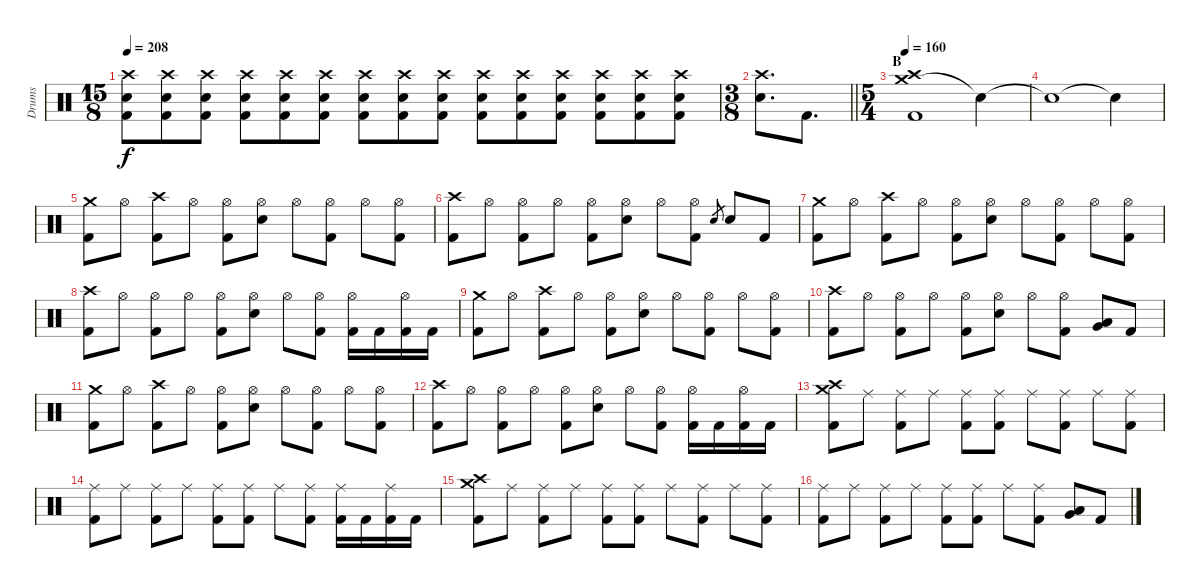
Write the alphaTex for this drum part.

\track ("Drums" "Drums") {instrument percussion}
\staff {score}
\articulation defaults
\ts (15 8)
\tempo 208
\clef neutral
\ks c
("Crash high (hit)" "Electric Snare (hit)" "Kick (hit) 2").8{dy f} ("Crash high (hit)" "Electric Snare (hit)" "Kick (hit) 2").8 ("Crash high (hit)" "Electric Snare (hit)" "Kick (hit) 2").8 ("Crash high (hit)" "Electric Snare (hit)" "Kick (hit) 2").8 ("Crash high (hit)" "Electric Snare (hit)" "Kick (hit) 2").8 ("Crash high (hit)" "Electric Snare (hit)" "Kick (hit) 2").8 ("Crash high (hit)" "Electric Snare (hit)" "Kick (hit) 2").8 ("Crash high (hit)" "Electric Snare (hit)" "Kick (hit) 2").8 ("Crash high (hit)" "Electric Snare (hit)" "Kick (hit) 2").8 ("Crash high (hit)" "Electric Snare (hit)" "Kick (hit) 2").8 ("Crash high (hit)" "Electric Snare (hit)" "Kick (hit) 2").8 ("Crash high (hit)" "Electric Snare (hit)" "Kick (hit) 2").8 ("Crash high (hit)" "Electric Snare (hit)" "Kick (hit) 2").8 ("Crash high (hit)" "Electric Snare (hit)" "Kick (hit) 2").8 ("Crash high (hit)" "Electric Snare (hit)" "Kick (hit) 2").8 |
\ts (3 8)
\barLineRight lightlight
("Crash high (hit)" "Electric Snare (hit)").8{d} "Kick (hit) 2".8{d} |
\ts (5 4)
\section ("" "B")
\tempo 160
("Crash medium (hit)" "Crash high (hit)" "Kick (hit) 2").1 "Snare (hit)"{t}.4 |
"Snare (hit)"{t}.1 "Snare (hit)"{t}.4 |
("Crash medium (hit)" "Kick (hit) 2").8 "Hi-Hat (open)".8 ("Crash high (hit)" "Kick (hit) 2").8 "Hi-Hat (open)".8 ("Hi-Hat (open)" "Kick (hit) 2").8 ("Hi-Hat (open)" "Electric Snare (hit)").8 "Hi-Hat (open)".8 ("Hi-Hat (open)" "Kick (hit) 2").8 "Hi-Hat (open)".8 ("Hi-Hat (open)" "Kick (hit) 2").8 |
("Crash high (hit)" "Kick (hit) 2").8 "Hi-Hat (open)".8 ("Hi-Hat (open)" "Kick (hit) 2").8 "Hi-Hat (open)".8 ("Hi-Hat (open)" "Kick (hit) 2").8 ("Hi-Hat (open)" "Electric Snare (hit)").8 "Hi-Hat (open)".8 ("Hi-Hat (open)" "Kick (hit) 2").8 "Electric Snare (hit)".8{gr} "Electric Snare (hit)".8 "Kick (hit) 2".8 |
("Crash medium (hit)" "Kick (hit) 2").8 "Hi-Hat (open)".8 ("Crash high (hit)" "Kick (hit) 2").8 "Hi-Hat (open)".8 ("Hi-Hat (open)" "Kick (hit) 2").8 ("Hi-Hat (open)" "Electric Snare (hit)").8 "Hi-Hat (open)".8 ("Hi-Hat (open)" "Kick (hit) 2").8 "Hi-Hat (open)".8 ("Hi-Hat (open)" "Kick (hit) 2").8 |
("Crash high (hit)" "Kick (hit) 2").8 "Hi-Hat (open)".8 ("Hi-Hat (open)" "Kick (hit) 2").8 "Hi-Hat (open)".8 ("Hi-Hat (open)" "Kick (hit) 2").8 ("Hi-Hat (open)" "Electric Snare (hit)").8 "Hi-Hat (open)".8 ("Hi-Hat (open)" "Kick (hit) 2").8 ("Hi-Hat (open)" "Kick (hit) 2").16 "Kick (hit) 2".16 ("Hi-Hat (open)" "Kick (hit) 2").16 "Kick (hit) 2".16 |
("Crash medium (hit)" "Kick (hit) 2").8 "Hi-Hat (open)".8 ("Crash high (hit)" "Kick (hit) 2").8 "Hi-Hat (open)".8 ("Hi-Hat (open)" "Kick (hit) 2").8 ("Hi-Hat (open)" "Electric Snare (hit)").8 "Hi-Hat (open)".8 ("Hi-Hat (open)" "Kick (hit) 2").8 "Hi-Hat (open)".8 ("Hi-Hat (open)" "Kick (hit) 2").8 |
("Crash high (hit)" "Kick (hit) 2").8 "Hi-Hat (open)".8 ("Hi-Hat (open)" "Kick (hit) 2").8 "Hi-Hat (open)".8 ("Hi-Hat (open)" "Kick (hit) 2").8 ("Hi-Hat (open)" "Electric Snare (hit)").8 "Hi-Hat (open)".8 ("Hi-Hat (open)" "Kick (hit) 2").8 ("Low Tom (hit)" "Very Low Tom (hit)").8 "Kick (hit) 2".8 |
("Crash medium (hit)" "Kick (hit) 2").8 "Hi-Hat (open)".8 ("Crash high (hit)" "Kick (hit) 2").8 "Hi-Hat (open)".8 ("Hi-Hat (open)" "Kick (hit) 2").8 ("Hi-Hat (open)" "Electric Snare (hit)").8 "Hi-Hat (open)".8 ("Hi-Hat (open)" "Kick (hit) 2").8 "Hi-Hat (open)".8 ("Hi-Hat (open)" "Kick (hit) 2").8 |
("Crash high (hit)" "Kick (hit) 2").8 "Hi-Hat (open)".8 ("Hi-Hat (open)" "Kick (hit) 2").8 "Hi-Hat (open)".8 ("Hi-Hat (open)" "Kick (hit) 2").8 ("Hi-Hat (open)" "Electric Snare (hit)").8 "Hi-Hat (open)".8 ("Hi-Hat (open)" "Kick (hit) 2").8 ("Hi-Hat (open)" "Kick (hit) 2").16 "Kick (hit) 2".16 ("Hi-Hat (open)" "Kick (hit) 2").16 "Kick (hit) 2".16 |
("Crash medium (hit)" "Crash high (hit)" "Kick (hit) 2").8 "Ride (middle)".8 ("Ride (middle)" "Kick (hit) 2").8 "Ride (middle)".8 ("Ride (middle)" "Kick (hit) 2").8 ("Ride (middle)" "Kick (hit) 2").8 "Ride (middle)".8 ("Ride (middle)" "Kick (hit) 2").8 "Ride (middle)".8 ("Ride (middle)" "Kick (hit) 2").8 |
("Ride (middle)" "Kick (hit) 2").8 "Ride (middle)".8 ("Ride (middle)" "Kick (hit) 2").8 "Ride (middle)".8 ("Ride (middle)" "Kick (hit) 2").8 ("Ride (middle)" "Kick (hit) 2").8 "Ride (middle)".8 ("Ride (middle)" "Kick (hit) 2").8 ("Ride (middle)" "Kick (hit) 2").16 "Kick (hit) 2".16 ("Ride (middle)" "Kick (hit) 2").16 "Kick (hit) 2".16 |
("Crash medium (hit)" "Crash high (hit)" "Kick (hit) 2").8 "Ride (middle)".8 ("Ride (middle)" "Kick (hit) 2").8 "Ride (middle)".8 ("Ride (middle)" "Kick (hit) 2").8 ("Ride (middle)" "Kick (hit) 2").8 "Ride (middle)".8 ("Ride (middle)" "Kick (hit) 2").8 "Ride (middle)".8 ("Ride (middle)" "Kick (hit) 2").8 |
("Ride (middle)" "Kick (hit) 2").8 "Ride (middle)".8 ("Ride (middle)" "Kick (hit) 2").8 "Ride (middle)".8 ("Ride (middle)" "Kick (hit) 2").8 ("Ride (middle)" "Kick (hit) 2").8 "Ride (middle)".8 ("Ride (middle)" "Kick (hit) 2").8 ("Low Tom (hit)" "Very Low Tom (hit)").8 "Kick (hit) 2".8
